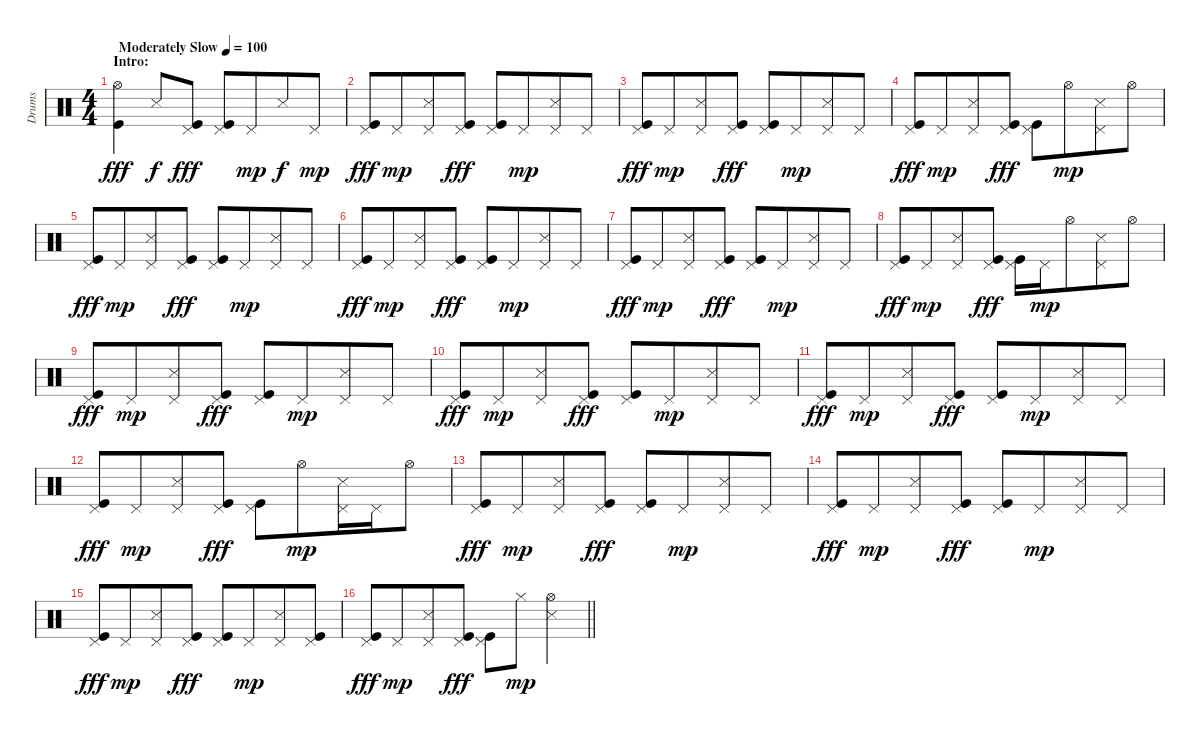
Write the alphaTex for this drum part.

\track ("Drums" "Drums") {instrument percussion}
\staff {score}
\articulation defaults
\ts (4 4)
\section ("" "Intro:")
\tempo (100 "Moderately Slow")
\clef neutral
\ks c
("Hi-Hat (open)" "Kick (hit)").4{dy fff} "Snare (side stick) 3".8{dy f} ("Pedal Hi-Hat (hit)" "Kick (hit)").8{dy fff} ("Pedal Hi-Hat (hit)" "Kick (hit)").8 "Pedal Hi-Hat (hit)".8{dy mp beam merge} "Snare (side stick) 3".8{dy f} "Pedal Hi-Hat (hit)".8{dy mp} |
("Pedal Hi-Hat (hit)" "Kick (hit)").8{dy fff} "Pedal Hi-Hat (hit)".8{dy mp beam merge} ("Pedal Hi-Hat (hit)" "Snare (side stick) 3").8 ("Pedal Hi-Hat (hit)" "Kick (hit)").8{dy fff} ("Pedal Hi-Hat (hit)" "Kick (hit)").8 "Pedal Hi-Hat (hit)".8{dy mp beam merge} ("Pedal Hi-Hat (hit)" "Snare (side stick) 3").8 "Pedal Hi-Hat (hit)".8 |
("Pedal Hi-Hat (hit)" "Kick (hit)").8{dy fff} "Pedal Hi-Hat (hit)".8{dy mp beam merge} ("Pedal Hi-Hat (hit)" "Snare (side stick) 3").8 ("Pedal Hi-Hat (hit)" "Kick (hit)").8{dy fff} ("Pedal Hi-Hat (hit)" "Kick (hit)").8 "Pedal Hi-Hat (hit)".8{dy mp beam merge} ("Pedal Hi-Hat (hit)" "Snare (side stick) 3").8 "Pedal Hi-Hat (hit)".8 |
("Pedal Hi-Hat (hit)" "Kick (hit)").8{dy fff} "Pedal Hi-Hat (hit)".8{dy mp beam merge} ("Pedal Hi-Hat (hit)" "Snare (side stick) 3").8 ("Pedal Hi-Hat (hit)" "Kick (hit)").8{dy fff} ("Pedal Hi-Hat (hit)" "Kick (hit)").8 "Hi-Hat (open)".8{dy mp beam merge} ("Pedal Hi-Hat (hit)" "Snare (side stick) 3").8 "Hi-Hat (open)".8 |
("Pedal Hi-Hat (hit)" "Kick (hit)").8{dy fff} "Pedal Hi-Hat (hit)".8{dy mp beam merge} ("Pedal Hi-Hat (hit)" "Snare (side stick) 3").8 ("Pedal Hi-Hat (hit)" "Kick (hit)").8{dy fff} ("Pedal Hi-Hat (hit)" "Kick (hit)").8 "Pedal Hi-Hat (hit)".8{dy mp beam merge} ("Pedal Hi-Hat (hit)" "Snare (side stick) 3").8 "Pedal Hi-Hat (hit)".8 |
("Pedal Hi-Hat (hit)" "Kick (hit)").8{dy fff} "Pedal Hi-Hat (hit)".8{dy mp beam merge} ("Pedal Hi-Hat (hit)" "Snare (side stick) 3").8 ("Pedal Hi-Hat (hit)" "Kick (hit)").8{dy fff} ("Pedal Hi-Hat (hit)" "Kick (hit)").8 "Pedal Hi-Hat (hit)".8{dy mp beam merge} ("Pedal Hi-Hat (hit)" "Snare (side stick) 3").8 "Pedal Hi-Hat (hit)".8 |
("Pedal Hi-Hat (hit)" "Kick (hit)").8{dy fff} "Pedal Hi-Hat (hit)".8{dy mp beam merge} ("Pedal Hi-Hat (hit)" "Snare (side stick) 3").8 ("Pedal Hi-Hat (hit)" "Kick (hit)").8{dy fff} ("Pedal Hi-Hat (hit)" "Kick (hit)").8 "Pedal Hi-Hat (hit)".8{dy mp beam merge} ("Pedal Hi-Hat (hit)" "Snare (side stick) 3").8 "Pedal Hi-Hat (hit)".8 |
("Pedal Hi-Hat (hit)" "Kick (hit)").8{dy fff} "Pedal Hi-Hat (hit)".8{dy mp beam merge} ("Pedal Hi-Hat (hit)" "Snare (side stick) 3").8 ("Pedal Hi-Hat (hit)" "Kick (hit)").8{dy fff} ("Pedal Hi-Hat (hit)" "Kick (hit)").16 "Pedal Hi-Hat (hit)".16{dy mp} "Hi-Hat (open)".8{beam merge} ("Pedal Hi-Hat (hit)" "Snare (side stick) 3").8 "Hi-Hat (open)".8 |
("Pedal Hi-Hat (hit)" "Kick (hit)").8{dy fff} "Pedal Hi-Hat (hit)".8{dy mp beam merge} ("Pedal Hi-Hat (hit)" "Snare (side stick) 3").8 ("Pedal Hi-Hat (hit)" "Kick (hit)").8{dy fff} ("Pedal Hi-Hat (hit)" "Kick (hit)").8 "Pedal Hi-Hat (hit)".8{dy mp beam merge} ("Pedal Hi-Hat (hit)" "Snare (side stick) 3").8 "Pedal Hi-Hat (hit)".8 |
("Pedal Hi-Hat (hit)" "Kick (hit)").8{dy fff} "Pedal Hi-Hat (hit)".8{dy mp beam merge} ("Pedal Hi-Hat (hit)" "Snare (side stick) 3").8 ("Pedal Hi-Hat (hit)" "Kick (hit)").8{dy fff} ("Pedal Hi-Hat (hit)" "Kick (hit)").8 "Pedal Hi-Hat (hit)".8{dy mp beam merge} ("Pedal Hi-Hat (hit)" "Snare (side stick) 3").8 "Pedal Hi-Hat (hit)".8 |
("Pedal Hi-Hat (hit)" "Kick (hit)").8{dy fff} "Pedal Hi-Hat (hit)".8{dy mp beam merge} ("Pedal Hi-Hat (hit)" "Snare (side stick) 3").8 ("Pedal Hi-Hat (hit)" "Kick (hit)").8{dy fff} ("Pedal Hi-Hat (hit)" "Kick (hit)").8 "Pedal Hi-Hat (hit)".8{dy mp beam merge} ("Pedal Hi-Hat (hit)" "Snare (side stick) 3").8 "Pedal Hi-Hat (hit)".8 |
("Pedal Hi-Hat (hit)" "Kick (hit)").8{dy fff} "Pedal Hi-Hat (hit)".8{dy mp beam merge} ("Pedal Hi-Hat (hit)" "Snare (side stick) 3").8 ("Pedal Hi-Hat (hit)" "Kick (hit)").8{dy fff} ("Pedal Hi-Hat (hit)" "Kick (hit)").8 "Hi-Hat (open)".8{dy mp beam merge} ("Pedal Hi-Hat (hit)" "Snare (side stick) 3").16 "Pedal Hi-Hat (hit)".16 "Hi-Hat (open)".8 |
("Pedal Hi-Hat (hit)" "Kick (hit)").8{dy fff} "Pedal Hi-Hat (hit)".8{dy mp beam merge} ("Pedal Hi-Hat (hit)" "Snare (side stick) 3").8 ("Pedal Hi-Hat (hit)" "Kick (hit)").8{dy fff} ("Pedal Hi-Hat (hit)" "Kick (hit)").8 "Pedal Hi-Hat (hit)".8{dy mp beam merge} ("Pedal Hi-Hat (hit)" "Snare (side stick) 3").8 "Pedal Hi-Hat (hit)".8 |
("Pedal Hi-Hat (hit)" "Kick (hit)").8{dy fff} "Pedal Hi-Hat (hit)".8{dy mp beam merge} ("Pedal Hi-Hat (hit)" "Snare (side stick) 3").8 ("Pedal Hi-Hat (hit)" "Kick (hit)").8{dy fff} ("Pedal Hi-Hat (hit)" "Kick (hit)").8 "Pedal Hi-Hat (hit)".8{dy mp beam merge} ("Pedal Hi-Hat (hit)" "Snare (side stick) 3").8 "Pedal Hi-Hat (hit)".8 |
("Pedal Hi-Hat (hit)" "Kick (hit)").8{dy fff} "Pedal Hi-Hat (hit)".8{dy mp beam merge} ("Pedal Hi-Hat (hit)" "Snare (side stick) 3").8 ("Pedal Hi-Hat (hit)" "Kick (hit)").8{dy fff} ("Pedal Hi-Hat (hit)" "Kick (hit)").8 "Pedal Hi-Hat (hit)".8{dy mp beam merge} ("Pedal Hi-Hat (hit)" "Snare (side stick) 3").8 ("Pedal Hi-Hat (hit)" "Kick (hit)").8 |
\barLineRight lightlight
("Pedal Hi-Hat (hit)" "Kick (hit)").8{dy fff} "Pedal Hi-Hat (hit)".8{dy mp beam merge} ("Pedal Hi-Hat (hit)" "Snare (side stick) 3").8 ("Pedal Hi-Hat (hit)" "Kick (hit)").8{dy fff} ("Pedal Hi-Hat (hit)" "Kick (hit)").8 "Hi-Hat (closed)".8{dy mp beam merge} ("Hi-Hat (open)" "Snare (side stick) 3").4
